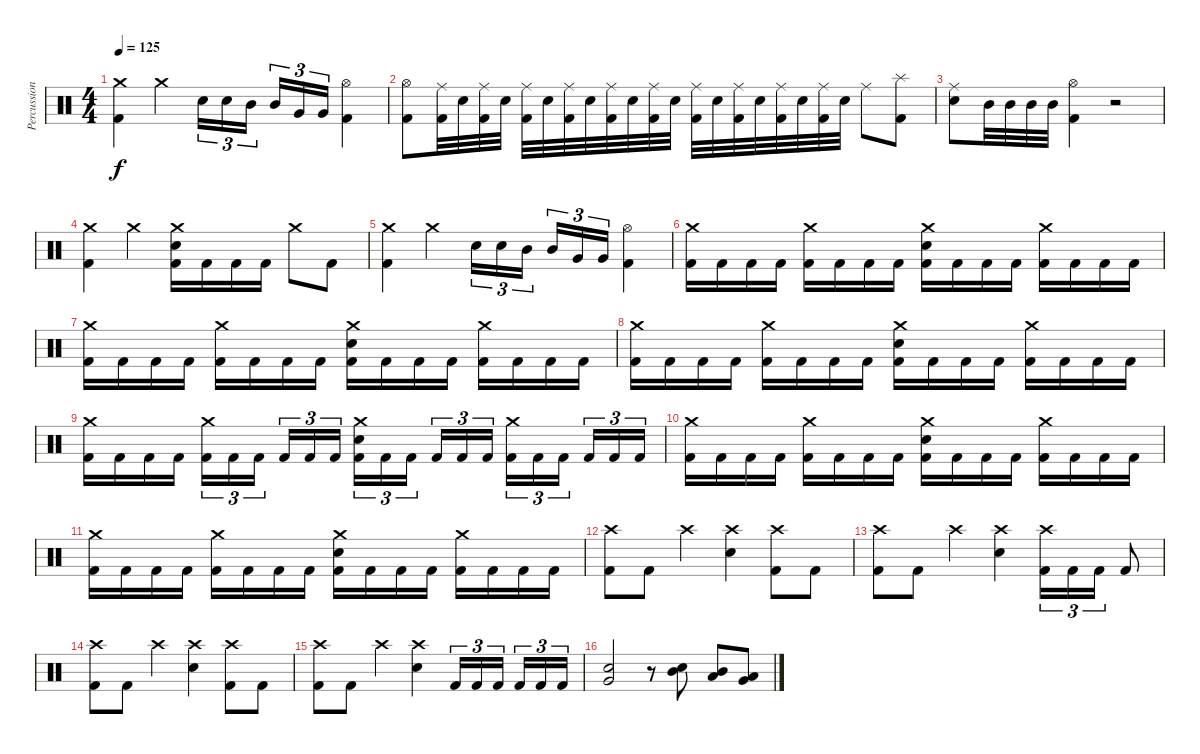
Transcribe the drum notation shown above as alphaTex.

\track ("Percussion" "Percussion") {instrument percussion}
\staff {score}
\articulation defaults
\ts (4 4)
\tempo 125
\clef neutral
\ks c
("Crash medium (hit)" "Kick (hit) 2").4{dy f} "Crash medium (hit)".4 "Electric Snare (hit)".16{tu (3 2)} "Electric Snare (hit)".16{tu (3 2)} "Mid Tom (hit)".16{tu (3 2) beam splitsecondary} "Mid Tom (hit)".16{tu (3 2)} "Very Low Tom (hit)".16{tu (3 2)} "Very Low Tom (hit)".16{tu (3 2)} ("Hi-Hat (open)" "Kick (hit) 2").4 |
("Hi-Hat (open)" "Kick (hit) 2").8 ("Ride (middle)" "Kick (hit) 2").32 "Electric Snare (hit)".32 ("Ride (middle)" "Kick (hit) 2").32 "Electric Snare (hit)".32 ("Ride (middle)" "Kick (hit) 2").32 "Electric Snare (hit)".32 ("Ride (middle)" "Kick (hit) 2").32 "Electric Snare (hit)".32 ("Ride (middle)" "Kick (hit) 2").32 "Electric Snare (hit)".32 ("Ride (middle)" "Kick (hit) 2").32 "Electric Snare (hit)".32 ("Ride (middle)" "Kick (hit) 2").32 "Electric Snare (hit)".32 ("Ride (middle)" "Kick (hit) 2").32 "Electric Snare (hit)".32 ("Ride (middle)" "Kick (hit) 2").32 "Electric Snare (hit)".32 ("Ride (middle)" "Kick (hit) 2").32 "Electric Snare (hit)".32 "Ride (middle)".8 ("Splash (hit)" "Kick (hit) 2").8 |
("Ride (middle)" "Electric Snare (hit)").8 "Mid Tom (hit)".32 "Mid Tom (hit)".32 "Mid Tom (hit)".32 "Mid Tom (hit)".32 ("Hi-Hat (open)" "Kick (hit) 2").4 r.2 |
("Crash medium (hit)" "Kick (hit) 2").4 "Crash medium (hit)".4 ("Crash medium (hit)" "Electric Snare (hit)" "Kick (hit) 2").16 "Kick (hit) 2".16 "Kick (hit) 2".16 "Kick (hit) 2".16 "Crash medium (hit)".8 "Kick (hit) 2".8 |
("Crash medium (hit)" "Kick (hit) 2").4 "Crash medium (hit)".4 "Electric Snare (hit)".16{tu (3 2)} "Electric Snare (hit)".16{tu (3 2)} "Mid Tom (hit)".16{tu (3 2) beam splitsecondary} "Mid Tom (hit)".16{tu (3 2)} "Very Low Tom (hit)".16{tu (3 2)} "Very Low Tom (hit)".16{tu (3 2)} ("Hi-Hat (open)" "Kick (hit) 2").4 |
("Crash medium (hit)" "Kick (hit) 2").16 "Kick (hit) 2".16 "Kick (hit) 2".16 "Kick (hit) 2".16 ("Crash medium (hit)" "Kick (hit) 2").16 "Kick (hit) 2".16 "Kick (hit) 2".16 "Kick (hit) 2".16 ("Crash medium (hit)" "Electric Snare (hit)" "Kick (hit) 2").16 "Kick (hit) 2".16 "Kick (hit) 2".16 "Kick (hit) 2".16 ("Crash medium (hit)" "Kick (hit) 2").16 "Kick (hit) 2".16 "Kick (hit) 2".16 "Kick (hit) 2".16 |
("Crash medium (hit)" "Kick (hit) 2").16 "Kick (hit) 2".16 "Kick (hit) 2".16 "Kick (hit) 2".16 ("Crash medium (hit)" "Kick (hit) 2").16 "Kick (hit) 2".16 "Kick (hit) 2".16 "Kick (hit) 2".16 ("Crash medium (hit)" "Electric Snare (hit)" "Kick (hit) 2").16 "Kick (hit) 2".16 "Kick (hit) 2".16 "Kick (hit) 2".16 ("Crash medium (hit)" "Kick (hit) 2").16 "Kick (hit) 2".16 "Kick (hit) 2".16 "Kick (hit) 2".16 |
("Crash medium (hit)" "Kick (hit) 2").16 "Kick (hit) 2".16 "Kick (hit) 2".16 "Kick (hit) 2".16 ("Crash medium (hit)" "Kick (hit) 2").16 "Kick (hit) 2".16 "Kick (hit) 2".16 "Kick (hit) 2".16 ("Crash medium (hit)" "Electric Snare (hit)" "Kick (hit) 2").16 "Kick (hit) 2".16 "Kick (hit) 2".16 "Kick (hit) 2".16 ("Crash medium (hit)" "Kick (hit) 2").16 "Kick (hit) 2".16 "Kick (hit) 2".16 "Kick (hit) 2".16 |
("Crash medium (hit)" "Kick (hit) 2").16 "Kick (hit) 2".16 "Kick (hit) 2".16 "Kick (hit) 2".16 ("Crash medium (hit)" "Kick (hit) 2").16{tu (3 2)} "Kick (hit) 2".16{tu (3 2)} "Kick (hit) 2".16{tu (3 2) beam splitsecondary} "Kick (hit) 2".16{tu (3 2)} "Kick (hit) 2".16{tu (3 2)} "Kick (hit) 2".16{tu (3 2)} ("Crash medium (hit)" "Electric Snare (hit)" "Kick (hit) 2").16{tu (3 2)} "Kick (hit) 2".16{tu (3 2)} "Kick (hit) 2".16{tu (3 2) beam splitsecondary} "Kick (hit) 2".16{tu (3 2)} "Kick (hit) 2".16{tu (3 2)} "Kick (hit) 2".16{tu (3 2)} ("Crash medium (hit)" "Kick (hit) 2").16{tu (3 2)} "Kick (hit) 2".16{tu (3 2)} "Kick (hit) 2".16{tu (3 2) beam splitsecondary} "Kick (hit) 2".16{tu (3 2)} "Kick (hit) 2".16{tu (3 2)} "Kick (hit) 2".16{tu (3 2)} |
("Crash medium (hit)" "Kick (hit) 2").16 "Kick (hit) 2".16 "Kick (hit) 2".16 "Kick (hit) 2".16 ("Crash medium (hit)" "Kick (hit) 2").16 "Kick (hit) 2".16 "Kick (hit) 2".16 "Kick (hit) 2".16 ("Crash medium (hit)" "Electric Snare (hit)" "Kick (hit) 2").16 "Kick (hit) 2".16 "Kick (hit) 2".16 "Kick (hit) 2".16 ("Crash medium (hit)" "Kick (hit) 2").16 "Kick (hit) 2".16 "Kick (hit) 2".16 "Kick (hit) 2".16 |
("Crash medium (hit)" "Kick (hit) 2").16 "Kick (hit) 2".16 "Kick (hit) 2".16 "Kick (hit) 2".16 ("Crash medium (hit)" "Kick (hit) 2").16 "Kick (hit) 2".16 "Kick (hit) 2".16 "Kick (hit) 2".16 ("Crash medium (hit)" "Electric Snare (hit)" "Kick (hit) 2").16 "Kick (hit) 2".16 "Kick (hit) 2".16 "Kick (hit) 2".16 ("Crash medium (hit)" "Kick (hit) 2").16 "Kick (hit) 2".16 "Kick (hit) 2".16 "Kick (hit) 2".16 |
("Crash high (hit)" "Kick (hit) 2").8 "Kick (hit) 2".8 "Crash high (hit)".4 ("Crash high (hit)" "Electric Snare (hit)").4 ("Crash high (hit)" "Kick (hit) 2").8 "Kick (hit) 2".8 |
("Crash high (hit)" "Kick (hit) 2").8 "Kick (hit) 2".8 "Crash high (hit)".4 ("Crash high (hit)" "Electric Snare (hit)").4 ("Crash high (hit)" "Kick (hit) 2").16{tu (3 2)} "Kick (hit) 2".16{tu (3 2)} "Kick (hit) 2".16{tu (3 2)} "Kick (hit) 2".8 |
("Crash high (hit)" "Kick (hit) 2").8 "Kick (hit) 2".8 "Crash high (hit)".4 ("Crash high (hit)" "Electric Snare (hit)").4 ("Crash high (hit)" "Kick (hit) 2").8 "Kick (hit) 2".8 |
("Crash high (hit)" "Kick (hit) 2").8 "Kick (hit) 2".8 "Crash high (hit)".4 ("Crash high (hit)" "Electric Snare (hit)").4 "Kick (hit) 2".16{tu (3 2)} "Kick (hit) 2".16{tu (3 2)} "Kick (hit) 2".16{tu (3 2) beam splitsecondary} "Kick (hit) 2".16{tu (3 2)} "Kick (hit) 2".16{tu (3 2)} "Kick (hit) 2".16{tu (3 2)} |
("Electric Snare (hit)" "Very Low Tom (hit)").2 r.8 ("Mid Tom (hit)" "Electric Snare (hit)").8 ("Low Tom (hit)" "Mid Tom (hit)").8 ("Low Tom (hit)" "Very Low Tom (hit)").8
